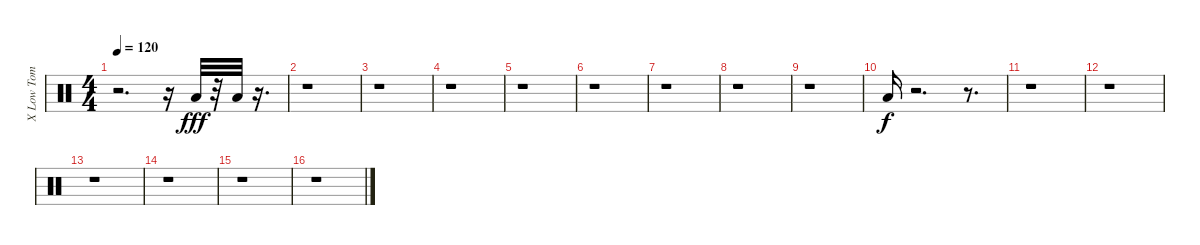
\track ("X Low Tom           " "X Low Tom ") {instrument percussion}
\staff {score}
\articulation defaults
\ts (4 4)
\tempo 120
\clef neutral
\ks c
r.2{d dy fff} r.16 "Low Floor Tom (hit)".32 r.32 "Low Floor Tom (hit)".32 r.16{d} |
r.1 |
r.1 |
r.1 |
r.1 |
r.1 |
r.1 |
r.1 |
r.1 |
"Low Floor Tom (hit)".16{dy f} r.2{d} r.8{d} |
r.1 |
r.1 |
r.1 |
r.1 |
r.1 |
r.1
